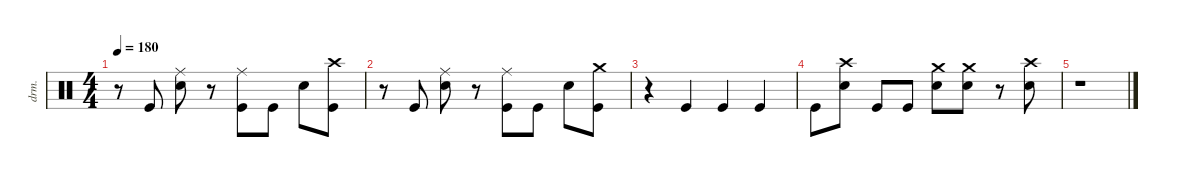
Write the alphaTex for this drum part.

\defaultSystemsLayout 4
\hideDynamics
\bracketExtendMode nobrackets
\track ("Bateria" "drm.") {instrument percussion}
\staff {score}
\articulation defaults
\ts (4 4)
\tempo 180
\clef neutral
\ks c
r.8{dy f} "Kick (hit)".8 ("Ride (middle)" "Snare (hit) 2").8 r.8 ("Ride (middle)" "Kick (hit)").8 "Kick (hit)".8 "Snare (hit) 2".8 ("Kick (hit)" "Crash high (hit)").8 |
r.8 "Kick (hit)".8 ("Ride (middle)" "Snare (hit) 2").8 r.8 ("Ride (middle)" "Kick (hit)").8 "Kick (hit)".8 "Snare (hit) 2".8 ("Kick (hit)" "Crash medium (hit)").8 |
r.4 "Kick (hit)".4 "Kick (hit)".4 "Kick (hit)".4 |
"Kick (hit)".8 ("Snare (hit) 2" "Crash high (hit)").8 "Kick (hit)".8 "Kick (hit)".8 ("Snare (hit) 2" "Crash medium (hit)").8 ("Snare (hit) 2" "Crash medium (hit)").8 r.8 ("Snare (hit) 2" "Crash high (hit)").8 |
r.1
